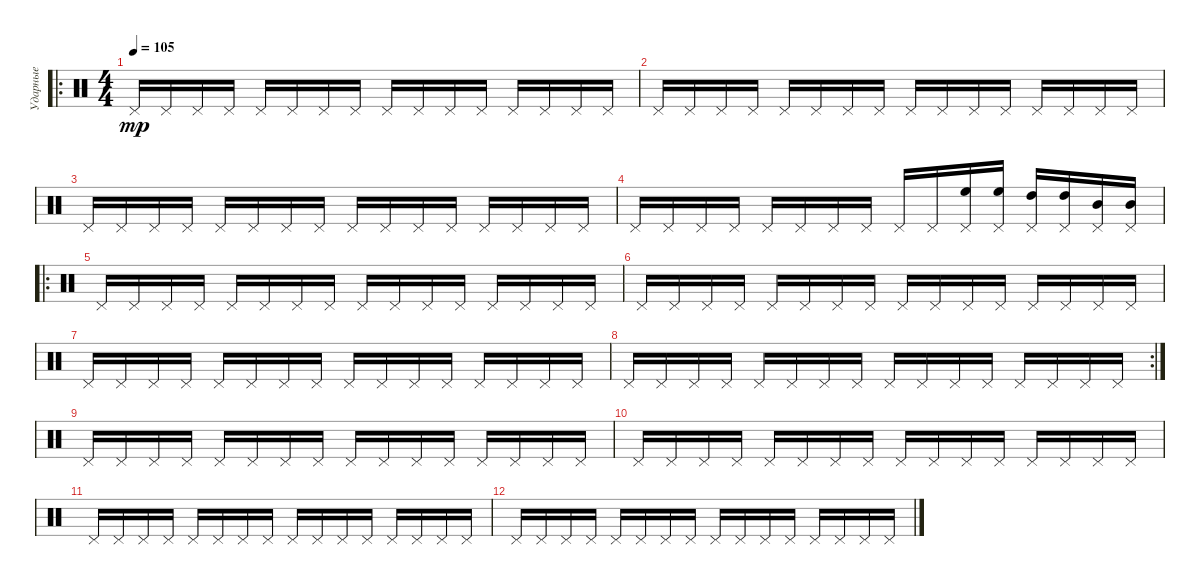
\track ("Ударные" "Ударные") {instrument percussion}
\staff {score}
\articulation defaults
\ro
\ts (4 4)
\tempo 105
\clef neutral
\ks c "Pedal Hi-Hat (hit)".16{dy mp} "Pedal Hi-Hat (hit)".16 "Pedal Hi-Hat (hit)".16 "Pedal Hi-Hat (hit)".16 "Pedal Hi-Hat (hit)".16 "Pedal Hi-Hat (hit)".16 "Pedal Hi-Hat (hit)".16 "Pedal Hi-Hat (hit)".16 "Pedal Hi-Hat (hit)".16 "Pedal Hi-Hat (hit)".16 "Pedal Hi-Hat (hit)".16 "Pedal Hi-Hat (hit)".16 "Pedal Hi-Hat (hit)".16 "Pedal Hi-Hat (hit)".16 "Pedal Hi-Hat (hit)".16 "Pedal Hi-Hat (hit)".16
|
"Pedal Hi-Hat (hit)".16 "Pedal Hi-Hat (hit)".16 "Pedal Hi-Hat (hit)".16 "Pedal Hi-Hat (hit)".16 "Pedal Hi-Hat (hit)".16 "Pedal Hi-Hat (hit)".16 "Pedal Hi-Hat (hit)".16 "Pedal Hi-Hat (hit)".16 "Pedal Hi-Hat (hit)".16 "Pedal Hi-Hat (hit)".16 "Pedal Hi-Hat (hit)".16 "Pedal Hi-Hat (hit)".16 "Pedal Hi-Hat (hit)".16 "Pedal Hi-Hat (hit)".16 "Pedal Hi-Hat (hit)".16 "Pedal Hi-Hat (hit)".16 |
"Pedal Hi-Hat (hit)".16 "Pedal Hi-Hat (hit)".16 "Pedal Hi-Hat (hit)".16 "Pedal Hi-Hat (hit)".16 "Pedal Hi-Hat (hit)".16 "Pedal Hi-Hat (hit)".16 "Pedal Hi-Hat (hit)".16 "Pedal Hi-Hat (hit)".16 "Pedal Hi-Hat (hit)".16 "Pedal Hi-Hat (hit)".16 "Pedal Hi-Hat (hit)".16 "Pedal Hi-Hat (hit)".16 "Pedal Hi-Hat (hit)".16 "Pedal Hi-Hat (hit)".16 "Pedal Hi-Hat (hit)".16 "Pedal Hi-Hat (hit)".16 |
"Pedal Hi-Hat (hit)".16 "Pedal Hi-Hat (hit)".16 "Pedal Hi-Hat (hit)".16 "Pedal Hi-Hat (hit)".16 "Pedal Hi-Hat (hit)".16 "Pedal Hi-Hat (hit)".16 "Pedal Hi-Hat (hit)".16 "Pedal Hi-Hat (hit)".16 "Pedal Hi-Hat (hit)".16 "Pedal Hi-Hat (hit)".16 ("Pedal Hi-Hat (hit)" "High Floor Tom (hit)").16 ("Pedal Hi-Hat (hit)" "High Floor Tom (hit)").16 ("Pedal Hi-Hat (hit)" "High Tom (hit)").16 ("Pedal Hi-Hat (hit)" "High Tom (hit)").16 ("Pedal Hi-Hat (hit)" "Mid Tom (hit)").16 ("Pedal Hi-Hat (hit)" "Mid Tom (hit)").16 |
\ro "Pedal Hi-Hat (hit)".16 "Pedal Hi-Hat (hit)".16 "Pedal Hi-Hat (hit)".16 "Pedal Hi-Hat (hit)".16 "Pedal Hi-Hat (hit)".16 "Pedal Hi-Hat (hit)".16 "Pedal Hi-Hat (hit)".16 "Pedal Hi-Hat (hit)".16 "Pedal Hi-Hat (hit)".16 "Pedal Hi-Hat (hit)".16 "Pedal Hi-Hat (hit)".16 "Pedal Hi-Hat (hit)".16 "Pedal Hi-Hat (hit)".16 "Pedal Hi-Hat (hit)".16 "Pedal Hi-Hat (hit)".16 "Pedal Hi-Hat (hit)".16
|
"Pedal Hi-Hat (hit)".16 "Pedal Hi-Hat (hit)".16 "Pedal Hi-Hat (hit)".16 "Pedal Hi-Hat (hit)".16 "Pedal Hi-Hat (hit)".16 "Pedal Hi-Hat (hit)".16 "Pedal Hi-Hat (hit)".16 "Pedal Hi-Hat (hit)".16 "Pedal Hi-Hat (hit)".16 "Pedal Hi-Hat (hit)".16 "Pedal Hi-Hat (hit)".16 "Pedal Hi-Hat (hit)".16 "Pedal Hi-Hat (hit)".16 "Pedal Hi-Hat (hit)".16 "Pedal Hi-Hat (hit)".16 "Pedal Hi-Hat (hit)".16 |
"Pedal Hi-Hat (hit)".16 "Pedal Hi-Hat (hit)".16 "Pedal Hi-Hat (hit)".16 "Pedal Hi-Hat (hit)".16 "Pedal Hi-Hat (hit)".16 "Pedal Hi-Hat (hit)".16 "Pedal Hi-Hat (hit)".16 "Pedal Hi-Hat (hit)".16 "Pedal Hi-Hat (hit)".16 "Pedal Hi-Hat (hit)".16 "Pedal Hi-Hat (hit)".16 "Pedal Hi-Hat (hit)".16 "Pedal Hi-Hat (hit)".16 "Pedal Hi-Hat (hit)".16 "Pedal Hi-Hat (hit)".16 "Pedal Hi-Hat (hit)".16 |
\rc 2 "Pedal Hi-Hat (hit)".16 "Pedal Hi-Hat (hit)".16 "Pedal Hi-Hat (hit)".16 "Pedal Hi-Hat (hit)".16 "Pedal Hi-Hat (hit)".16 "Pedal Hi-Hat (hit)".16 "Pedal Hi-Hat (hit)".16 "Pedal Hi-Hat (hit)".16 "Pedal Hi-Hat (hit)".16 "Pedal Hi-Hat (hit)".16 "Pedal Hi-Hat (hit)".16 "Pedal Hi-Hat (hit)".16 "Pedal Hi-Hat (hit)".16 "Pedal Hi-Hat (hit)".16 "Pedal Hi-Hat (hit)".16 "Pedal Hi-Hat (hit)".16
|
"Pedal Hi-Hat (hit)".16 "Pedal Hi-Hat (hit)".16 "Pedal Hi-Hat (hit)".16 "Pedal Hi-Hat (hit)".16 "Pedal Hi-Hat (hit)".16 "Pedal Hi-Hat (hit)".16 "Pedal Hi-Hat (hit)".16 "Pedal Hi-Hat (hit)".16 "Pedal Hi-Hat (hit)".16 "Pedal Hi-Hat (hit)".16 "Pedal Hi-Hat (hit)".16 "Pedal Hi-Hat (hit)".16 "Pedal Hi-Hat (hit)".16 "Pedal Hi-Hat (hit)".16 "Pedal Hi-Hat (hit)".16 "Pedal Hi-Hat (hit)".16 |
"Pedal Hi-Hat (hit)".16 "Pedal Hi-Hat (hit)".16 "Pedal Hi-Hat (hit)".16 "Pedal Hi-Hat (hit)".16 "Pedal Hi-Hat (hit)".16 "Pedal Hi-Hat (hit)".16 "Pedal Hi-Hat (hit)".16 "Pedal Hi-Hat (hit)".16 "Pedal Hi-Hat (hit)".16 "Pedal Hi-Hat (hit)".16 "Pedal Hi-Hat (hit)".16 "Pedal Hi-Hat (hit)".16 "Pedal Hi-Hat (hit)".16 "Pedal Hi-Hat (hit)".16 "Pedal Hi-Hat (hit)".16 "Pedal Hi-Hat (hit)".16 |
"Pedal Hi-Hat (hit)".16 "Pedal Hi-Hat (hit)".16 "Pedal Hi-Hat (hit)".16 "Pedal Hi-Hat (hit)".16 "Pedal Hi-Hat (hit)".16 "Pedal Hi-Hat (hit)".16 "Pedal Hi-Hat (hit)".16 "Pedal Hi-Hat (hit)".16 "Pedal Hi-Hat (hit)".16 "Pedal Hi-Hat (hit)".16 "Pedal Hi-Hat (hit)".16 "Pedal Hi-Hat (hit)".16 "Pedal Hi-Hat (hit)".16 "Pedal Hi-Hat (hit)".16 "Pedal Hi-Hat (hit)".16 "Pedal Hi-Hat (hit)".16 |
"Pedal Hi-Hat (hit)".16 "Pedal Hi-Hat (hit)".16 "Pedal Hi-Hat (hit)".16 "Pedal Hi-Hat (hit)".16 "Pedal Hi-Hat (hit)".16 "Pedal Hi-Hat (hit)".16 "Pedal Hi-Hat (hit)".16 "Pedal Hi-Hat (hit)".16 "Pedal Hi-Hat (hit)".16 "Pedal Hi-Hat (hit)".16 "Pedal Hi-Hat (hit)".16 "Pedal Hi-Hat (hit)".16 "Pedal Hi-Hat (hit)".16 "Pedal Hi-Hat (hit)".16 "Pedal Hi-Hat (hit)".16 "Pedal Hi-Hat (hit)".16
